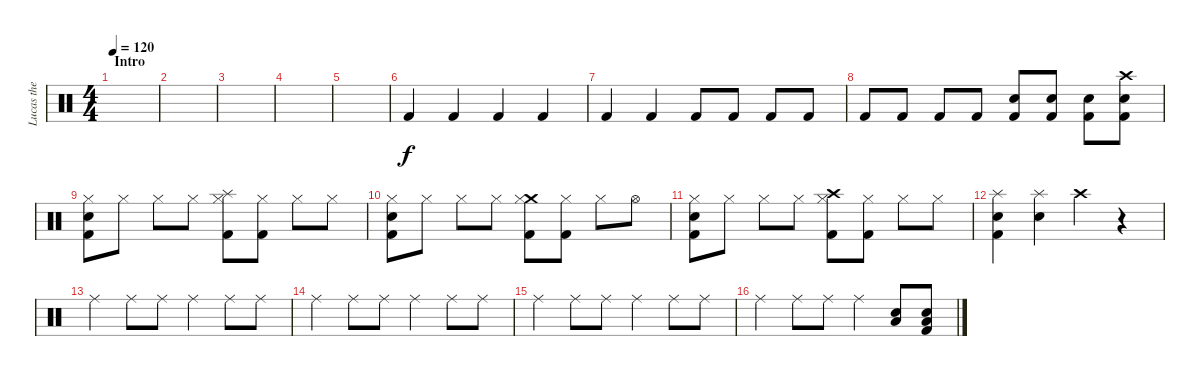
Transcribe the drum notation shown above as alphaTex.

\track ("Lucas the MAN" "Lucas the ") {instrument percussion}
\staff {score}
\articulation defaults
\ts (4 4)
\section ("" "Intro")
\tempo 120
\clef neutral
\ks c
|
|
|
|
|
"Kick (hit) 2".4 "Kick (hit) 2".4 "Kick (hit) 2".4 "Kick (hit) 2".4 |
"Kick (hit) 2".4 "Kick (hit) 2".4 "Kick (hit) 2".8 "Kick (hit) 2".8 "Kick (hit) 2".8 "Kick (hit) 2".8 |
"Kick (hit) 2".8 "Kick (hit) 2".8 "Kick (hit) 2".8 "Kick (hit) 2".8 ("Electric Snare (hit)" "Kick (hit) 2").8 ("Electric Snare (hit)" "Kick (hit) 2").8 ("Electric Snare (hit)" "Kick (hit) 2").8 ("Crash high (hit)" "Electric Snare (hit)" "Kick (hit) 2").8 |
("Electric Snare (hit)" "Hi-Hat (closed)" "Kick (hit) 2").8 "Hi-Hat (closed)".8 "Hi-Hat (closed)".8 "Hi-Hat (closed)".8 ("Splash (hit)" "Hi-Hat (closed)" "Kick (hit) 2").8 ("Hi-Hat (closed)" "Kick (hit) 2").8 "Hi-Hat (closed)".8 "Hi-Hat (closed)".8 |
("Electric Snare (hit)" "Hi-Hat (closed)" "Kick (hit) 2").8 "Hi-Hat (closed)".8 "Hi-Hat (closed)".8 "Hi-Hat (closed)".8 ("Crash medium (hit)" "Hi-Hat (closed)" "Kick (hit) 2").8 ("Hi-Hat (closed)" "Kick (hit) 2").8 "Hi-Hat (closed)".8 "Hi-Hat (open)".8 |
("Electric Snare (hit)" "Hi-Hat (closed)" "Kick (hit) 2").8 "Hi-Hat (closed)".8 "Hi-Hat (closed)".8 "Hi-Hat (closed)".8 ("Crash high (hit)" "Hi-Hat (closed)" "Kick (hit) 2").8 ("Hi-Hat (closed)" "Kick (hit) 2").8 "Hi-Hat (closed)".8 "Hi-Hat (closed)".8 |
("Splash (hit)" "Electric Snare (hit)" "Kick (hit) 2").4 ("Splash (hit)" "Electric Snare (hit)").4 "Crash high (hit)".4 r.4 |
"Ride (middle)".4 "Ride (middle)".8 "Ride (middle)".8 "Ride (middle)".4 "Ride (middle)".8 "Ride (middle)".8 |
"Ride (middle)".4 "Ride (middle)".8 "Ride (middle)".8 "Ride (middle)".4 "Ride (middle)".8 "Ride (middle)".8 |
"Ride (middle)".4 "Ride (middle)".8 "Ride (middle)".8 "Ride (middle)".4 "Ride (middle)".8 "Ride (middle)".8 |
"Ride (middle)".4 "Ride (middle)".8 "Ride (middle)".8 "Ride (middle)".4 ("Low Floor Tom (hit)" "Electric Snare (hit)").8 ("Low Floor Tom (hit)" "Electric Snare (hit)" "Kick (hit) 2").8
